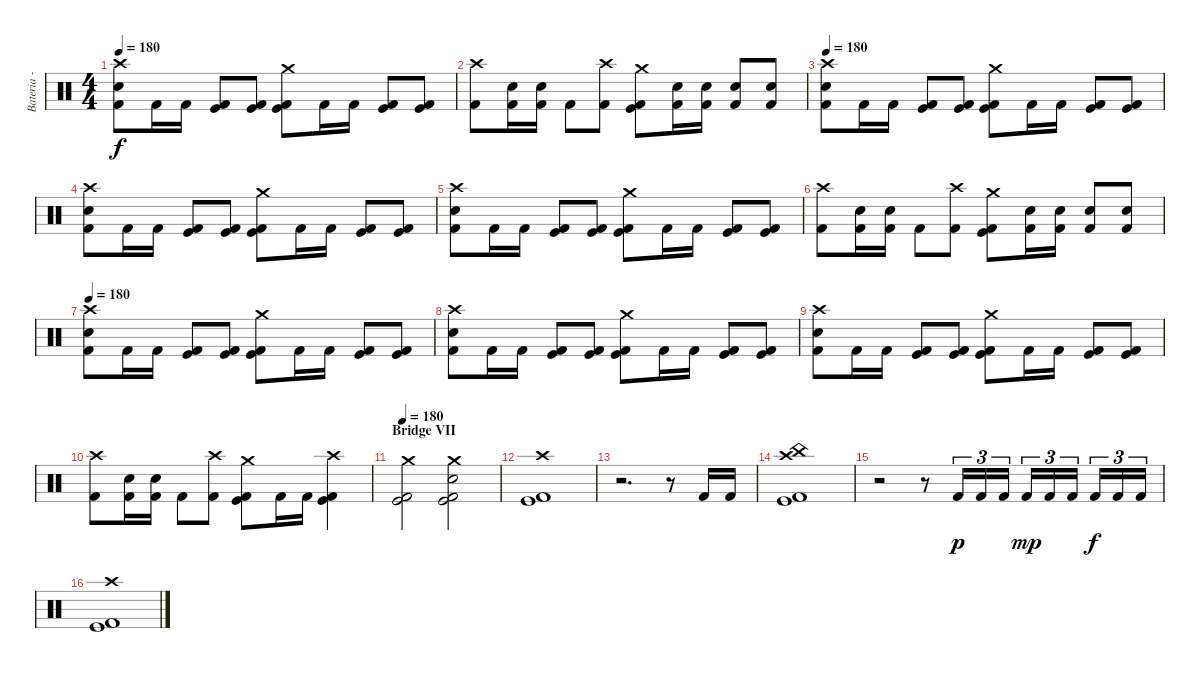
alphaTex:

\track ("Bateria - Drums" "Bateria - ") {instrument percussion}
\staff {score}
\articulation defaults
\ts (4 4)
\tempo 180
\clef neutral
\ks c
("Crash high (hit)" "Snare (hit) 2" "Kick (hit) 2").8{dy f} "Kick (hit) 2".16 "Kick (hit) 2".16 ("Kick (hit)" "Kick (hit) 2").8 ("Kick (hit)" "Kick (hit) 2").8 ("Crash medium (hit)" "Kick (hit)" "Kick (hit) 2").8 "Kick (hit) 2".16 "Kick (hit) 2".16 ("Kick (hit)" "Kick (hit) 2").8 ("Kick (hit)" "Kick (hit) 2").8 |
("Crash high (hit)" "Kick (hit) 2").8 ("Snare (hit) 2" "Kick (hit) 2").16 ("Snare (hit) 2" "Kick (hit) 2").16 "Kick (hit) 2".8 ("Crash high (hit)" "Kick (hit) 2").8 ("Crash medium (hit)" "Kick (hit)" "Kick (hit) 2").8 ("Snare (hit) 2" "Kick (hit) 2").16 ("Snare (hit) 2" "Kick (hit) 2").16 ("Snare (hit) 2" "Kick (hit) 2").8 ("Snare (hit) 2" "Kick (hit) 2").8 |
\tempo 180
("Crash high (hit)" "Snare (hit) 2" "Kick (hit) 2").8 "Kick (hit) 2".16 "Kick (hit) 2".16 ("Kick (hit)" "Kick (hit) 2").8 ("Kick (hit)" "Kick (hit) 2").8 ("Crash medium (hit)" "Kick (hit)" "Kick (hit) 2").8 "Kick (hit) 2".16 "Kick (hit) 2".16 ("Kick (hit)" "Kick (hit) 2").8 ("Kick (hit)" "Kick (hit) 2").8 |
("Crash high (hit)" "Snare (hit) 2" "Kick (hit) 2").8 "Kick (hit) 2".16 "Kick (hit) 2".16 ("Kick (hit)" "Kick (hit) 2").8 ("Kick (hit)" "Kick (hit) 2").8 ("Crash medium (hit)" "Kick (hit)" "Kick (hit) 2").8 "Kick (hit) 2".16 "Kick (hit) 2".16 ("Kick (hit)" "Kick (hit) 2").8 ("Kick (hit)" "Kick (hit) 2").8 |
("Crash high (hit)" "Snare (hit) 2" "Kick (hit) 2").8 "Kick (hit) 2".16 "Kick (hit) 2".16 ("Kick (hit)" "Kick (hit) 2").8 ("Kick (hit)" "Kick (hit) 2").8 ("Crash medium (hit)" "Kick (hit)" "Kick (hit) 2").8 "Kick (hit) 2".16 "Kick (hit) 2".16 ("Kick (hit)" "Kick (hit) 2").8 ("Kick (hit)" "Kick (hit) 2").8 |
("Crash high (hit)" "Kick (hit) 2").8 ("Snare (hit) 2" "Kick (hit) 2").16 ("Snare (hit) 2" "Kick (hit) 2").16 "Kick (hit) 2".8 ("Crash high (hit)" "Kick (hit) 2").8 ("Crash medium (hit)" "Kick (hit)" "Kick (hit) 2").8 ("Snare (hit) 2" "Kick (hit) 2").16 ("Snare (hit) 2" "Kick (hit) 2").16 ("Snare (hit) 2" "Kick (hit) 2").8 ("Snare (hit) 2" "Kick (hit) 2").8 |
\tempo 180
("Crash high (hit)" "Snare (hit) 2" "Kick (hit) 2").8 "Kick (hit) 2".16 "Kick (hit) 2".16 ("Kick (hit)" "Kick (hit) 2").8 ("Kick (hit)" "Kick (hit) 2").8 ("Crash medium (hit)" "Kick (hit)" "Kick (hit) 2").8 "Kick (hit) 2".16 "Kick (hit) 2".16 ("Kick (hit)" "Kick (hit) 2").8 ("Kick (hit)" "Kick (hit) 2").8 |
("Crash high (hit)" "Snare (hit) 2" "Kick (hit) 2").8 "Kick (hit) 2".16 "Kick (hit) 2".16 ("Kick (hit)" "Kick (hit) 2").8 ("Kick (hit)" "Kick (hit) 2").8 ("Crash medium (hit)" "Kick (hit)" "Kick (hit) 2").8 "Kick (hit) 2".16 "Kick (hit) 2".16 ("Kick (hit)" "Kick (hit) 2").8 ("Kick (hit)" "Kick (hit) 2").8 |
("Crash high (hit)" "Snare (hit) 2" "Kick (hit) 2").8 "Kick (hit) 2".16 "Kick (hit) 2".16 ("Kick (hit)" "Kick (hit) 2").8 ("Kick (hit)" "Kick (hit) 2").8 ("Crash medium (hit)" "Kick (hit)" "Kick (hit) 2").8 "Kick (hit) 2".16 "Kick (hit) 2".16 ("Kick (hit)" "Kick (hit) 2").8 ("Kick (hit)" "Kick (hit) 2").8 |
("Crash high (hit)" "Kick (hit) 2").8 ("Snare (hit) 2" "Kick (hit) 2").16 ("Snare (hit) 2" "Kick (hit) 2").16 "Kick (hit) 2".8 ("Crash high (hit)" "Kick (hit) 2").8 ("Crash medium (hit)" "Kick (hit)" "Kick (hit) 2").8 "Kick (hit) 2".16 "Kick (hit) 2".16 ("Crash high (hit)" "Kick (hit)" "Kick (hit) 2").4 |
\section ("" "Bridge VII")
\tempo 180
("Crash medium (hit)" "Kick (hit)" "Kick (hit) 2").2 ("Crash medium (hit)" "Snare (hit) 2" "Kick (hit)" "Kick (hit) 2").2 |
("Crash high (hit)" "Kick (hit)" "Kick (hit) 2").1 |
r.2{d} r.8 "Kick (hit) 2".16 "Kick (hit) 2".16 |
("Crash high (hit)" "China (hit)" "Kick (hit)" "Kick (hit) 2").1 |
r.2 r.8 "Kick (hit) 2".16{tu (3 2) dy p} "Kick (hit) 2".16{tu (3 2)} "Kick (hit) 2".16{tu (3 2)} "Kick (hit) 2".16{tu (3 2) dy mp} "Kick (hit) 2".16{tu (3 2)} "Kick (hit) 2".16{tu (3 2)} "Kick (hit) 2".16{tu (3 2) dy f} "Kick (hit) 2".16{tu (3 2)} "Kick (hit) 2".16{tu (3 2)} |
("Crash high (hit)" "Kick (hit)" "Kick (hit) 2").1
